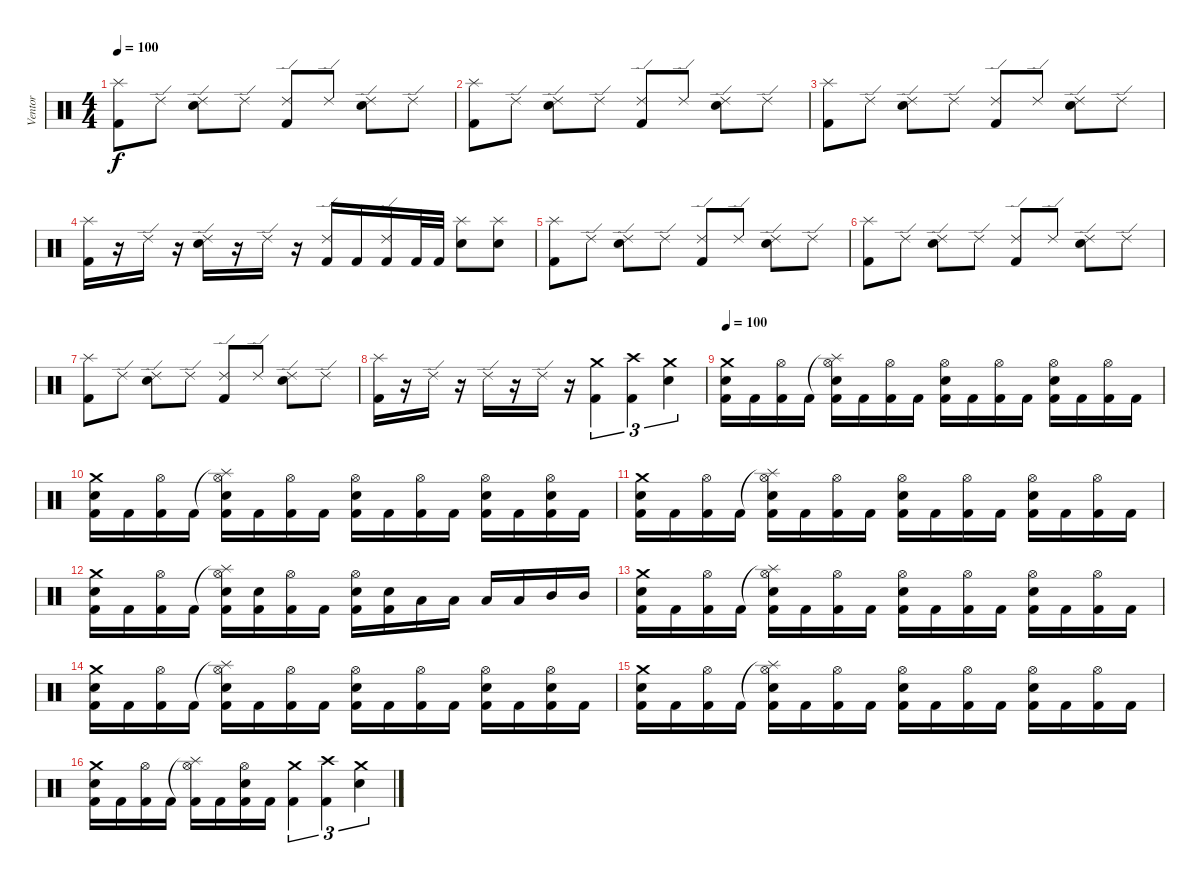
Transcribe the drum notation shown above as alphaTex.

\track ("Ventor" "Ventor") {instrument percussion}
\staff {score}
\articulation defaults
\ts (4 4)
\tempo 100
\clef neutral
\ks c
("Splash (hit)" "Kick (hit) 2").8{dy f} "Ride (edge) 2".8 ("Ride (edge) 2" "Snare (hit) 2").8 "Ride (edge) 2".8 ("Ride (edge) 2" "Kick (hit) 2").8 "Ride (edge) 2".8 ("Ride (edge) 2" "Snare (hit) 2").8 "Ride (edge) 2".8 |
("Splash (hit)" "Kick (hit) 2").8 "Ride (edge) 2".8 ("Ride (edge) 2" "Snare (hit) 2").8 "Ride (edge) 2".8 ("Ride (edge) 2" "Kick (hit) 2").8 "Ride (edge) 2".8 ("Ride (edge) 2" "Snare (hit) 2").8 "Ride (edge) 2".8 |
("Splash (hit)" "Kick (hit) 2").8 "Ride (edge) 2".8 ("Ride (edge) 2" "Snare (hit) 2").8 "Ride (edge) 2".8 ("Ride (edge) 2" "Kick (hit) 2").8 "Ride (edge) 2".8 ("Ride (edge) 2" "Snare (hit) 2").8 "Ride (edge) 2".8 |
("Splash (hit)" "Kick (hit) 2").16 r.16 "Ride (edge) 2".16 r.16 ("Ride (edge) 2" "Snare (hit) 2").16 r.16 "Ride (edge) 2".16 r.16 ("Ride (edge) 2" "Kick (hit) 2").16 "Kick (hit) 2".16 ("Ride (edge) 2" "Kick (hit) 2").16 "Kick (hit) 2".32 "Kick (hit) 2".32 ("Splash (hit)" "Snare (hit) 2").8 ("Splash (hit)" "Snare (hit) 2").8 |
("Splash (hit)" "Kick (hit) 2").8 "Ride (edge) 2".8 ("Ride (edge) 2" "Snare (hit) 2").8 "Ride (edge) 2".8 ("Ride (edge) 2" "Kick (hit) 2").8 "Ride (edge) 2".8 ("Ride (edge) 2" "Snare (hit) 2").8 "Ride (edge) 2".8 |
("Splash (hit)" "Kick (hit) 2").8 "Ride (edge) 2".8 ("Ride (edge) 2" "Snare (hit) 2").8 "Ride (edge) 2".8 ("Ride (edge) 2" "Kick (hit) 2").8 "Ride (edge) 2".8 ("Ride (edge) 2" "Snare (hit) 2").8 "Ride (edge) 2".8 |
("Splash (hit)" "Kick (hit) 2").8 "Ride (edge) 2".8 ("Ride (edge) 2" "Snare (hit) 2").8 "Ride (edge) 2".8 ("Ride (edge) 2" "Kick (hit) 2").8 "Ride (edge) 2".8 ("Ride (edge) 2" "Snare (hit) 2").8 "Ride (edge) 2".8 |
("Splash (hit)" "Kick (hit) 2").16 r.16 "Ride (edge) 2".16 r.16 "Ride (edge) 2".16 r.16 "Ride (edge) 2".16 r.16 ("Crash medium (hit)" "Kick (hit) 2").4{tu (3 2)} ("Crash high (hit)" "Kick (hit) 2").4{tu (3 2)} ("Crash medium (hit)" "Snare (hit) 2").4{tu (3 2)} |
\tempo 100
("Crash medium (hit)" "Snare (hit) 2" "Kick (hit) 2").16 "Kick (hit) 2".16 ("Hi-Hat (open)" "Kick (hit) 2").16 "Kick (hit) 2".16 ("Splash (hit)"{t} "Hi-Hat (open)" "Snare (hit) 2" "Kick (hit) 2").16 "Kick (hit) 2".16 ("Hi-Hat (open)" "Kick (hit) 2").16 "Kick (hit) 2".16 ("Hi-Hat (open)" "Snare (hit) 2" "Kick (hit) 2").16 "Kick (hit) 2".16 ("Hi-Hat (open)" "Kick (hit) 2").16 "Kick (hit) 2".16 ("Hi-Hat (open)" "Snare (hit) 2" "Kick (hit) 2").16 "Kick (hit) 2".16 ("Hi-Hat (open)" "Kick (hit) 2").16 "Kick (hit) 2".16 |
("Crash medium (hit)" "Snare (hit) 2" "Kick (hit) 2").16 "Kick (hit) 2".16 ("Hi-Hat (open)" "Kick (hit) 2").16 "Kick (hit) 2".16 ("Splash (hit)"{t} "Hi-Hat (open)" "Snare (hit) 2" "Kick (hit) 2").16 "Kick (hit) 2".16 ("Hi-Hat (open)" "Kick (hit) 2").16 "Kick (hit) 2".16 ("Hi-Hat (open)" "Snare (hit) 2" "Kick (hit) 2").16 "Kick (hit) 2".16 ("Hi-Hat (open)" "Kick (hit) 2").16 "Kick (hit) 2".16 ("Hi-Hat (open)" "Snare (hit) 2" "Kick (hit) 2").16 "Kick (hit) 2".16 ("Hi-Hat (open)" "Snare (hit) 2" "Kick (hit) 2").16 "Kick (hit) 2".16 |
("Crash medium (hit)" "Snare (hit) 2" "Kick (hit) 2").16 "Kick (hit) 2".16 ("Hi-Hat (open)" "Kick (hit) 2").16 "Kick (hit) 2".16 ("Splash (hit)"{t} "Hi-Hat (open)" "Snare (hit) 2" "Kick (hit) 2").16 "Kick (hit) 2".16 ("Hi-Hat (open)" "Kick (hit) 2").16 "Kick (hit) 2".16 ("Hi-Hat (open)" "Snare (hit) 2" "Kick (hit) 2").16 "Kick (hit) 2".16 ("Hi-Hat (open)" "Kick (hit) 2").16 "Kick (hit) 2".16 ("Hi-Hat (open)" "Snare (hit) 2" "Kick (hit) 2").16 "Kick (hit) 2".16 ("Hi-Hat (open)" "Kick (hit) 2").16 "Kick (hit) 2".16 |
("Crash medium (hit)" "Snare (hit) 2" "Kick (hit) 2").16 "Kick (hit) 2".16 ("Hi-Hat (open)" "Kick (hit) 2").16 "Kick (hit) 2".16 ("Splash (hit)"{t} "Hi-Hat (open)" "Snare (hit) 2" "Kick (hit) 2").16 ("Snare (hit) 2" "Kick (hit) 2").16 ("Hi-Hat (open)" "Kick (hit) 2").16 "Kick (hit) 2".16 ("Hi-Hat (open)" "Snare (hit) 2" "Kick (hit) 2").16 ("Snare (hit) 2" "Kick (hit) 2").16 "Low Floor Tom (hit)".16 "Low Floor Tom (hit)".16 "Low Tom (hit)".16 "Low Tom (hit)".16 "Mid Tom (hit)".16 "Mid Tom (hit)".16 |
("Crash medium (hit)" "Snare (hit) 2" "Kick (hit) 2").16 "Kick (hit) 2".16 ("Hi-Hat (open)" "Kick (hit) 2").16 "Kick (hit) 2".16 ("Splash (hit)"{t} "Hi-Hat (open)" "Snare (hit) 2" "Kick (hit) 2").16 "Kick (hit) 2".16 ("Hi-Hat (open)" "Kick (hit) 2").16 "Kick (hit) 2".16 ("Hi-Hat (open)" "Snare (hit) 2" "Kick (hit) 2").16 "Kick (hit) 2".16 ("Hi-Hat (open)" "Kick (hit) 2").16 "Kick (hit) 2".16 ("Hi-Hat (open)" "Snare (hit) 2" "Kick (hit) 2").16 "Kick (hit) 2".16 ("Hi-Hat (open)" "Kick (hit) 2").16 "Kick (hit) 2".16 |
("Crash medium (hit)" "Snare (hit) 2" "Kick (hit) 2").16 "Kick (hit) 2".16 ("Hi-Hat (open)" "Kick (hit) 2").16 "Kick (hit) 2".16 ("Splash (hit)"{t} "Hi-Hat (open)" "Snare (hit) 2" "Kick (hit) 2").16 "Kick (hit) 2".16 ("Hi-Hat (open)" "Kick (hit) 2").16 "Kick (hit) 2".16 ("Hi-Hat (open)" "Snare (hit) 2" "Kick (hit) 2").16 "Kick (hit) 2".16 ("Hi-Hat (open)" "Kick (hit) 2").16 "Kick (hit) 2".16 ("Hi-Hat (open)" "Snare (hit) 2" "Kick (hit) 2").16 "Kick (hit) 2".16 ("Hi-Hat (open)" "Snare (hit) 2" "Kick (hit) 2").16 "Kick (hit) 2".16 |
("Crash medium (hit)" "Snare (hit) 2" "Kick (hit) 2").16 "Kick (hit) 2".16 ("Hi-Hat (open)" "Kick (hit) 2").16 "Kick (hit) 2".16 ("Splash (hit)"{t} "Hi-Hat (open)" "Snare (hit) 2" "Kick (hit) 2").16 "Kick (hit) 2".16 ("Hi-Hat (open)" "Kick (hit) 2").16 "Kick (hit) 2".16 ("Hi-Hat (open)" "Snare (hit) 2" "Kick (hit) 2").16 "Kick (hit) 2".16 ("Hi-Hat (open)" "Kick (hit) 2").16 "Kick (hit) 2".16 ("Hi-Hat (open)" "Snare (hit) 2" "Kick (hit) 2").16 "Kick (hit) 2".16 ("Hi-Hat (open)" "Kick (hit) 2").16 "Kick (hit) 2".16 |
("Crash medium (hit)" "Snare (hit) 2" "Kick (hit) 2").16 "Kick (hit) 2".16 ("Hi-Hat (open)" "Kick (hit) 2").16 "Kick (hit) 2".16 ("Splash (hit)"{t} "Hi-Hat (open)" "Kick (hit) 2").16 "Kick (hit) 2".16 ("Hi-Hat (open)" "Snare (hit) 2" "Kick (hit) 2").16 "Kick (hit) 2".16 ("Crash medium (hit)" "Kick (hit) 2").4{tu (3 2)} ("Crash high (hit)" "Kick (hit) 2").4{tu (3 2)} ("Crash medium (hit)" "Snare (hit) 2").4{tu (3 2)}
